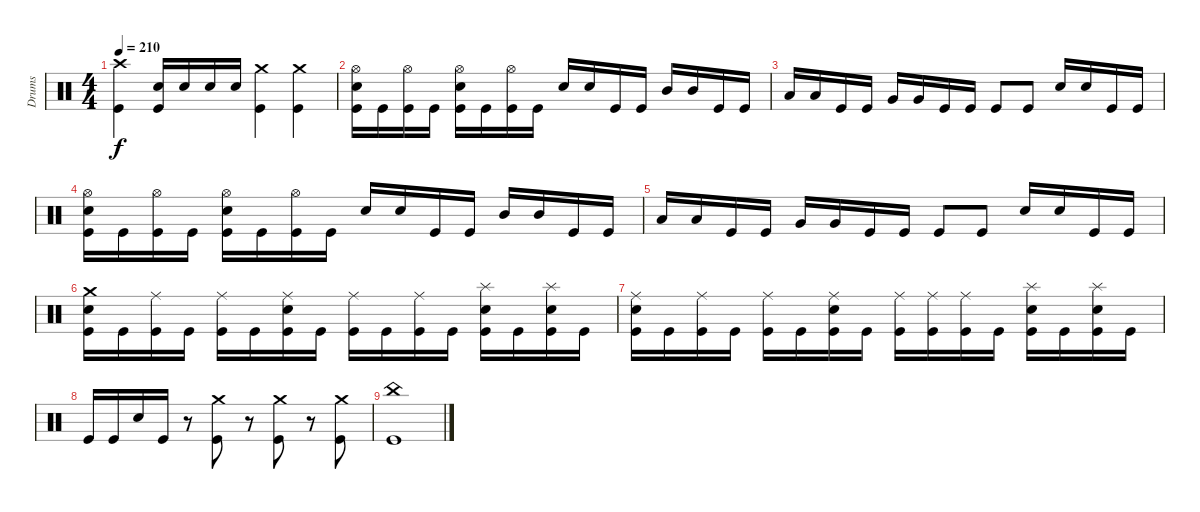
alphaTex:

\track ("Drums" "Drums") {instrument percussion}
\staff {score}
\articulation defaults
\ts (4 4)
\tempo 210
\clef neutral
\ks c
("Crash high (hit)" "Kick (hit)").4{dy f} ("Electric Snare (hit)" "Kick (hit)").16 "Electric Snare (hit)".16 "Electric Snare (hit)".16 "Electric Snare (hit)".16 ("Crash medium (hit)" "Kick (hit)").4 ("Crash medium (hit)" "Kick (hit)").4 |
("Hi-Hat (open)" "Electric Snare (hit)" "Kick (hit)").16 "Kick (hit)".16 ("Hi-Hat (open)" "Kick (hit)").16 "Kick (hit)".16 ("Hi-Hat (open)" "Electric Snare (hit)" "Kick (hit)").16 "Kick (hit)".16 ("Hi-Hat (open)" "Kick (hit)").16 "Kick (hit)".16 "Electric Snare (hit)".16 "Electric Snare (hit)".16 "Kick (hit)".16 "Kick (hit)".16 "Mid Tom (hit)".16 "Mid Tom (hit)".16 "Kick (hit)".16 "Kick (hit)".16 |
"Low Tom (hit)".16 "Low Tom (hit)".16 "Kick (hit)".16 "Kick (hit)".16 "Very Low Tom (hit)".16 "Very Low Tom (hit)".16 "Kick (hit)".16 "Kick (hit)".16 "Kick (hit)".8 "Kick (hit)".8 "Electric Snare (hit)".16 "Electric Snare (hit)".16 "Kick (hit)".16 "Kick (hit)".16 |
("Hi-Hat (open)" "Electric Snare (hit)" "Kick (hit)").16 "Kick (hit)".16 ("Hi-Hat (open)" "Kick (hit)").16 "Kick (hit)".16 ("Hi-Hat (open)" "Electric Snare (hit)" "Kick (hit)").16 "Kick (hit)".16 ("Hi-Hat (open)" "Kick (hit)").16 "Kick (hit)".16 "Electric Snare (hit)".16 "Electric Snare (hit)".16 "Kick (hit)".16 "Kick (hit)".16 "Mid Tom (hit)".16 "Mid Tom (hit)".16 "Kick (hit)".16 "Kick (hit)".16 |
"Low Tom (hit)".16 "Low Tom (hit)".16 "Kick (hit)".16 "Kick (hit)".16 "Very Low Tom (hit)".16 "Very Low Tom (hit)".16 "Kick (hit)".16 "Kick (hit)".16 "Kick (hit)".8 "Kick (hit)".8 "Electric Snare (hit)".16 "Electric Snare (hit)".16 "Kick (hit)".16 "Kick (hit)".16 |
("Crash medium (hit)" "Electric Snare (hit)" "Kick (hit)").16 "Kick (hit)".16 ("Ride (middle)" "Kick (hit)").16 "Kick (hit)".16 ("Ride (middle)" "Kick (hit)").16 "Kick (hit)".16 ("Ride (middle)" "Electric Snare (hit)" "Kick (hit)").16 "Kick (hit)".16 ("Ride (middle)" "Kick (hit)").16 "Kick (hit)".16 ("Ride (middle)" "Kick (hit)").16 "Kick (hit)".16 ("Splash (hit)" "Electric Snare (hit)" "Kick (hit)").16 "Kick (hit)".16 ("Splash (hit)" "Electric Snare (hit)" "Kick (hit)").16 "Kick (hit)".16 |
("Ride (middle)" "Electric Snare (hit)" "Kick (hit)").16 "Kick (hit)".16 ("Ride (middle)" "Kick (hit)").16 "Kick (hit)".16 ("Ride (middle)" "Kick (hit)").16 "Kick (hit)".16 ("Ride (middle)" "Electric Snare (hit)" "Kick (hit)").16 "Kick (hit)".16 ("Ride (middle)" "Kick (hit)").16 ("Ride (middle)" "Kick (hit)").16 ("Ride (middle)" "Kick (hit)").16 "Kick (hit)".16 ("Splash (hit)" "Electric Snare (hit)" "Kick (hit)").16 "Kick (hit)".16 ("Splash (hit)" "Electric Snare (hit)" "Kick (hit)").16 "Kick (hit)".16 |
"Kick (hit)".16 "Kick (hit)".16 "Electric Snare (hit)".16 "Kick (hit)".16 r.8 ("Crash medium (hit)" "Kick (hit)").8 r.8 ("Crash medium (hit)" "Kick (hit)").8 r.8 ("Crash medium (hit)" "Kick (hit)").8 |
("China (hit)" "Kick (hit)").1
